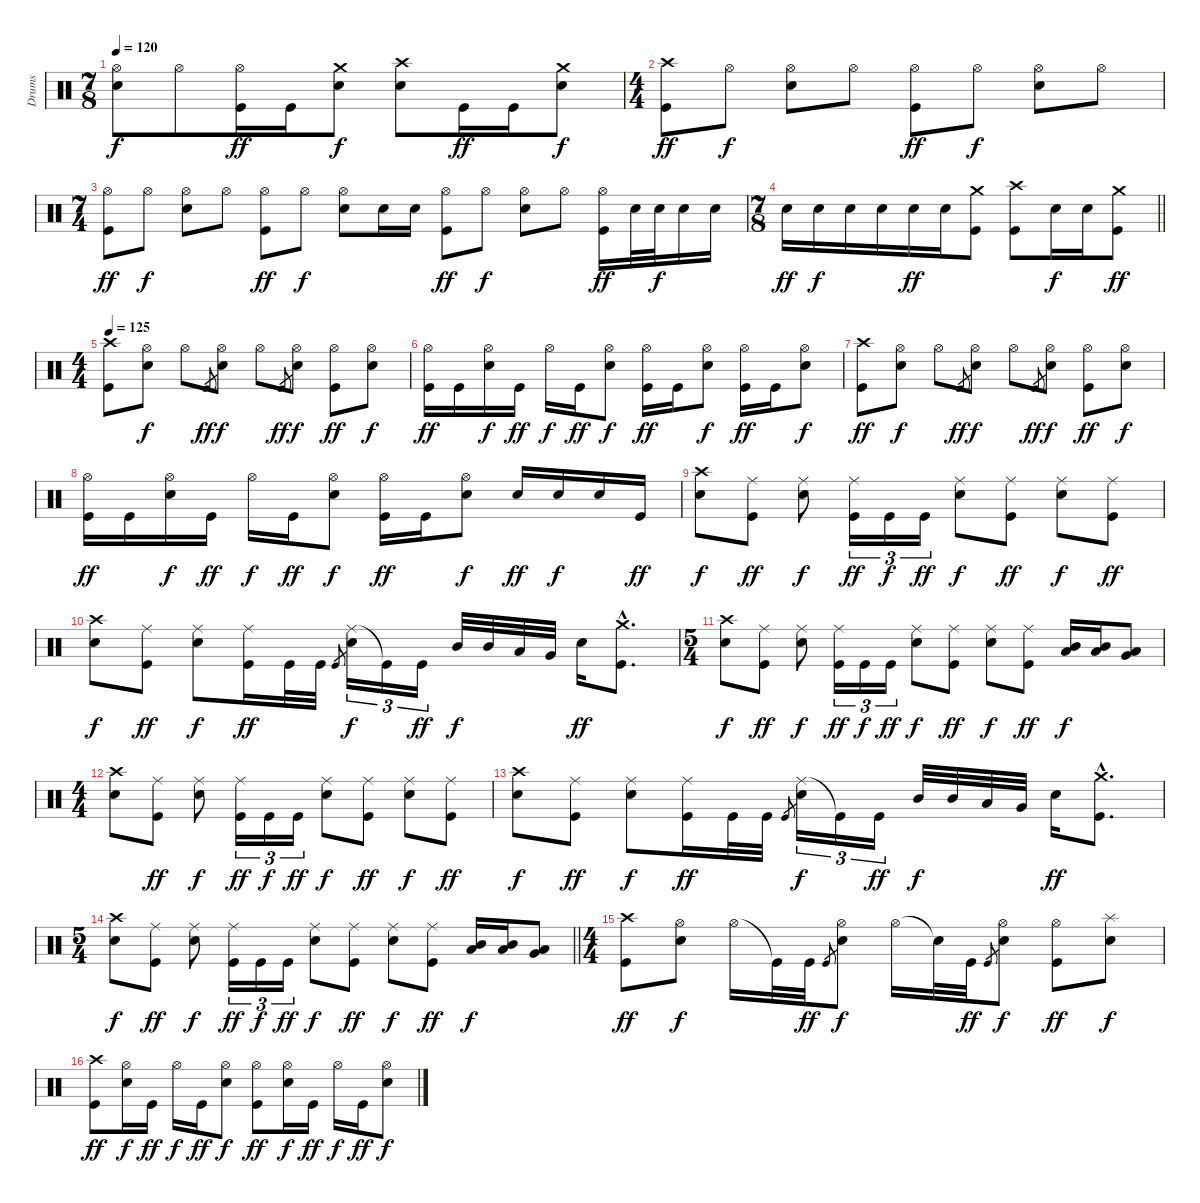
\track ("Drums" "Drums") {instrument percussion}
\staff {score}
\articulation defaults
\ts (7 8)
\tempo 120
\clef neutral
\ks c
("Hi-Hat (open)" "Snare (hit) 2").8{dy f} "Hi-Hat (open)".8 ("Hi-Hat (open)" "Kick (hit)").16{dy ff} "Kick (hit)".16 ("Crash medium (hit)" "Snare (hit) 2").8{dy f} ("Crash high (hit)" "Snare (hit) 2").8 "Kick (hit)".16{dy ff} "Kick (hit)".16 ("Crash medium (hit)" "Snare (hit) 2").8{dy f} |
\ts (4 4)
("Crash high (hit)" "Kick (hit)").8{dy ff} "Hi-Hat (open)".8{dy f} ("Hi-Hat (open)" "Snare (hit) 2").8 "Hi-Hat (open)".8 ("Hi-Hat (open)" "Kick (hit)").8{dy ff} "Hi-Hat (open)".8{dy f} ("Hi-Hat (open)" "Snare (hit) 2").8 "Hi-Hat (open)".8 |
\ts (7 4)
("Hi-Hat (open)" "Kick (hit)").8{dy ff} "Hi-Hat (open)".8{dy f} ("Hi-Hat (open)" "Snare (hit) 2").8 "Hi-Hat (open)".8 ("Hi-Hat (open)" "Kick (hit)").8{dy ff} "Hi-Hat (open)".8{dy f} ("Hi-Hat (open)" "Snare (hit) 2").8 "Snare (hit) 2".16 "Snare (hit) 2".16 ("Hi-Hat (open)" "Kick (hit)").8{dy ff} "Hi-Hat (open)".8{dy f} ("Hi-Hat (open)" "Snare (hit) 2").8 "Hi-Hat (open)".8 ("Hi-Hat (open)" "Kick (hit)").16{dy ff} "Snare (hit) 2".32 "Snare (hit) 2".32{dy f} "Snare (hit) 2".16 "Snare (hit) 2".16 |
\ts (7 8)
\barLineRight lightlight "Snare (hit) 2".16{dy ff} "Snare (hit) 2".16{dy f} "Snare (hit) 2".16 "Snare (hit) 2".16 "Snare (hit) 2".16{dy ff} "Snare (hit) 2".16
("Crash medium (hit)" "Kick (hit)").8 ("Crash high (hit)" "Kick (hit)").8 "Snare (hit) 2".16{dy f} "Snare (hit) 2".16 ("Crash medium (hit)" "Kick (hit)").8{dy ff} |
\ts (4 4)
\tempo 125
("Crash high (hit)" "Kick (hit)").8 ("Hi-Hat (open)" "Snare (hit) 2").8{dy f} "Hi-Hat (open)".8 "Kick (hit)".8{gr dy ff} ("Hi-Hat (open)" "Snare (hit) 2").8{dy f} "Hi-Hat (open)".8 "Kick (hit)".8{gr dy ff} ("Hi-Hat (open)" "Snare (hit) 2").8{dy f} ("Hi-Hat (open)" "Kick (hit)").8{dy ff} ("Hi-Hat (open)" "Snare (hit) 2").8{dy f} |
("Hi-Hat (open)" "Kick (hit)").16{dy ff} "Kick (hit)".16 ("Hi-Hat (open)" "Snare (hit) 2").16{dy f} "Kick (hit)".16{dy ff} "Hi-Hat (open)".16{dy f} "Kick (hit)".16{dy ff} ("Hi-Hat (open)" "Snare (hit) 2").8{dy f} ("Hi-Hat (open)" "Kick (hit)").16{dy ff} "Kick (hit)".16 ("Hi-Hat (open)" "Snare (hit) 2").8{dy f} ("Hi-Hat (open)" "Kick (hit)").16{dy ff} "Kick (hit)".16 ("Hi-Hat (open)" "Snare (hit) 2").8{dy f} |
("Crash high (hit)" "Kick (hit)").8{dy ff} ("Hi-Hat (open)" "Snare (hit) 2").8{dy f} "Hi-Hat (open)".8 "Kick (hit)".8{gr dy ff} ("Hi-Hat (open)" "Snare (hit) 2").8{dy f} "Hi-Hat (open)".8 "Kick (hit)".8{gr dy ff} ("Hi-Hat (open)" "Snare (hit) 2").8{dy f} ("Hi-Hat (open)" "Kick (hit)").8{dy ff} ("Hi-Hat (open)" "Snare (hit) 2").8{dy f} |
("Hi-Hat (open)" "Kick (hit)").16{dy ff} "Kick (hit)".16 ("Hi-Hat (open)" "Snare (hit) 2").16{dy f} "Kick (hit)".16{dy ff} "Hi-Hat (open)".16{dy f} "Kick (hit)".16{dy ff} ("Hi-Hat (open)" "Snare (hit) 2").8{dy f} ("Hi-Hat (open)" "Kick (hit)").16{dy ff} "Kick (hit)".16 ("Hi-Hat (open)" "Snare (hit) 2").8{dy f} "Snare (hit) 2".16{dy ff} "Snare (hit) 2".16{dy f} "Snare (hit) 2".16 "Kick (hit)".16{dy ff} |
("Crash high (hit)" "Snare (hit) 2").8{dy f} ("Ride (middle)" "Kick (hit)").8{dy ff} ("Ride (middle)" "Snare (hit) 2").8{dy f} ("Ride (middle)" "Kick (hit)").16{tu (3 2) dy ff} "Kick (hit)".16{tu (3 2) dy f} "Kick (hit)".16{tu (3 2) dy ff} ("Ride (middle)" "Snare (hit) 2").8{dy f} ("Ride (middle)" "Kick (hit)").8{dy ff} ("Ride (middle)" "Snare (hit) 2").8{dy f} ("Ride (middle)" "Kick (hit)").8{dy ff} |
("Crash high (hit)" "Snare (hit) 2").8{dy f} ("Ride (middle)" "Kick (hit)").8{dy ff} ("Ride (middle)" "Snare (hit) 2").8{dy f} ("Ride (middle)" "Kick (hit)").16{dy ff} "Kick (hit)".32 "Kick (hit)".32 "Kick (hit)".8{gr} ("Ride (middle)" "Snare (hit) 2").16{tu (3 2) dy f} "Kick (hit)"{t}.16{tu (3 2)} "Kick (hit)".16{tu (3 2) dy ff} "Mid Tom (hit)".32{dy f} "Mid Tom (hit)".32 "Low Tom (hit)".32 "Very Low Tom (hit)".32 "Snare (hit) 2".16{dy ff} ("Crash medium (hit)"{hac} "Kick (hit)"{hac}).8{d} |
\ts (5 4)
("Crash high (hit)" "Snare (hit) 2").8{dy f} ("Ride (middle)" "Kick (hit)").8{dy ff} ("Ride (middle)" "Snare (hit) 2").8{dy f} ("Ride (middle)" "Kick (hit)").16{tu (3 2) dy ff} "Kick (hit)".16{tu (3 2) dy f} "Kick (hit)".16{tu (3 2) dy ff} ("Ride (middle)" "Snare (hit) 2").8{dy f} ("Ride (middle)" "Kick (hit)").8{dy ff} ("Ride (middle)" "Snare (hit) 2").8{dy f} ("Ride (middle)" "Kick (hit)").8{dy ff} ("Mid Tom (hit)" "Low Tom (hit)").16{dy f} ("Mid Tom (hit)" "Low Tom (hit)").16 ("Low Tom (hit)" "Very Low Tom (hit)").8 |
\ts (4 4)
("Crash high (hit)" "Snare (hit) 2").8 ("Ride (middle)" "Kick (hit)").8{dy ff} ("Ride (middle)" "Snare (hit) 2").8{dy f} ("Ride (middle)" "Kick (hit)").16{tu (3 2) dy ff} "Kick (hit)".16{tu (3 2) dy f} "Kick (hit)".16{tu (3 2) dy ff} ("Ride (middle)" "Snare (hit) 2").8{dy f} ("Ride (middle)" "Kick (hit)").8{dy ff} ("Ride (middle)" "Snare (hit) 2").8{dy f} ("Ride (middle)" "Kick (hit)").8{dy ff} |
("Crash high (hit)" "Snare (hit) 2").8{dy f} ("Ride (middle)" "Kick (hit)").8{dy ff} ("Ride (middle)" "Snare (hit) 2").8{dy f} ("Ride (middle)" "Kick (hit)").16{dy ff} "Kick (hit)".32 "Kick (hit)".32 "Kick (hit)".8{gr} ("Ride (middle)" "Snare (hit) 2").16{tu (3 2) dy f} "Kick (hit)"{t}.16{tu (3 2)} "Kick (hit)".16{tu (3 2) dy ff} "Mid Tom (hit)".32{dy f} "Mid Tom (hit)".32 "Low Tom (hit)".32 "Very Low Tom (hit)".32 "Snare (hit) 2".16{dy ff} ("Crash medium (hit)"{hac} "Kick (hit)"{hac}).8{d} |
\ts (5 4)
\barLineRight lightlight
("Crash high (hit)" "Snare (hit) 2").8{dy f} ("Ride (middle)" "Kick (hit)").8{dy ff} ("Ride (middle)" "Snare (hit) 2").8{dy f} ("Ride (middle)" "Kick (hit)").16{tu (3 2) dy ff} "Kick (hit)".16{tu (3 2) dy f} "Kick (hit)".16{tu (3 2) dy ff} ("Ride (middle)" "Snare (hit) 2").8{dy f} ("Ride (middle)" "Kick (hit)").8{dy ff} ("Ride (middle)" "Snare (hit) 2").8{dy f} ("Ride (middle)" "Kick (hit)").8{dy ff} ("Mid Tom (hit)" "Low Tom (hit)").16{dy f} ("Mid Tom (hit)" "Low Tom (hit)").16 ("Low Tom (hit)" "Very Low Tom (hit)").8 |
\ts (4 4)
("Crash high (hit)" "Kick (hit)").8{dy ff} ("Hi-Hat (open)" "Snare (hit) 2").8{dy f} "Hi-Hat (open)".16 "Kick (hit)"{t}.32 "Kick (hit)".32{dy ff} "Kick (hit)".8{gr} ("Hi-Hat (open)" "Snare (hit) 2").8{dy f} "Hi-Hat (open)".16 "Snare (hit)"{t}.32 "Kick (hit)".32{dy ff} "Kick (hit)".8{gr} ("Hi-Hat (open)" "Snare (hit) 2").8{dy f} ("Hi-Hat (open)" "Kick (hit)").8{dy ff} ("Splash (hit)" "Snare (hit) 2").8{dy f} |
("Crash high (hit)" "Kick (hit)").8{dy ff} ("Hi-Hat (open)" "Snare (hit) 2").16{dy f} "Kick (hit)".16{dy ff} "Hi-Hat (open)".16{dy f} "Kick (hit)".16{dy ff} ("Hi-Hat (open)" "Snare (hit) 2").8{dy f} ("Hi-Hat (open)" "Kick (hit)").8{dy ff} ("Hi-Hat (open)" "Snare (hit) 2").16{dy f} "Kick (hit)".16{dy ff} "Hi-Hat (open)".16{dy f} "Kick (hit)".16{dy ff} ("Hi-Hat (open)" "Snare (hit) 2").8{dy f}
